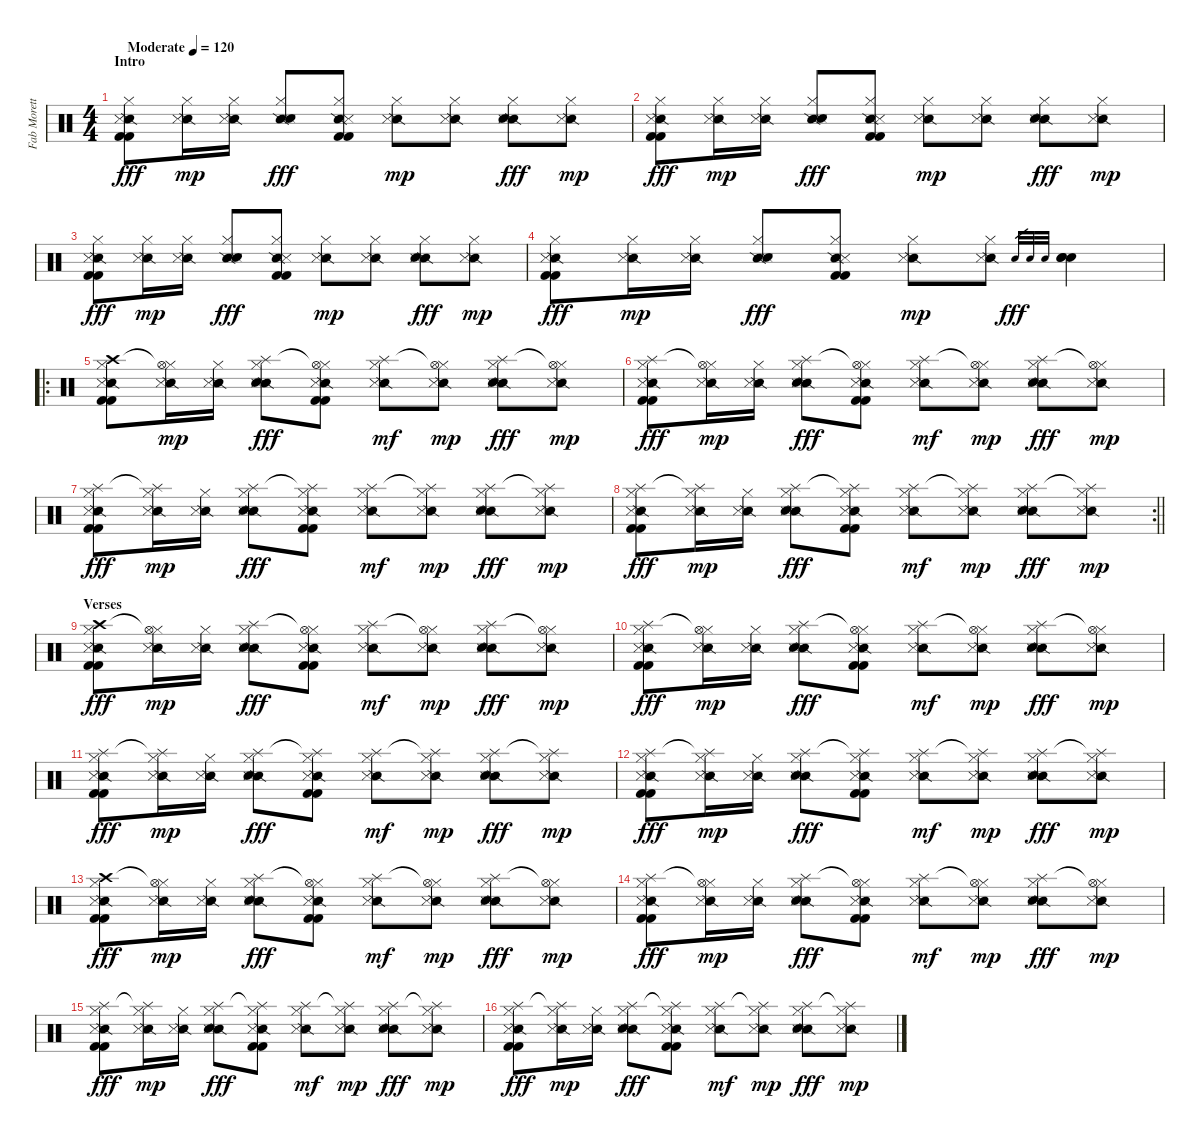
\track ("Fab Moretti - Drums" "Fab Morett") {instrument percussion}
\staff {score}
\articulation defaults
\ts (4 4)
\section ("" "Intro")
\tempo (120 "Moderate")
\clef neutral
\ks c
("Snare (side stick) 2" "Metronome (hit)" "Hi-Hat (closed)" "Kick (hit) 2" "Kick (hit) 2").8{dy fff} ("Snare (side stick) 2" "Metronome (hit)" "Hi-Hat (closed)").16{dy mp} ("Snare (side stick) 2" "Metronome (hit)" "Hi-Hat (closed)").16 ("Snare (side stick) 2" "Metronome (hit)" "Hi-Hat (closed)" "Electric Snare (hit)").8{dy fff} ("Snare (side stick) 2" "Metronome (hit)" "Hi-Hat (closed)" "Kick (hit) 2" "Kick (hit) 2").8 ("Snare (side stick) 2" "Metronome (hit)" "Hi-Hat (closed)").8{dy mp} ("Snare (side stick) 2" "Metronome (hit)" "Hi-Hat (closed)").8 ("Snare (side stick) 2" "Metronome (hit)" "Hi-Hat (closed)" "Electric Snare (hit)").8{dy fff} ("Snare (side stick) 2" "Metronome (hit)" "Hi-Hat (closed)").8{dy mp} |
("Snare (side stick) 2" "Metronome (hit)" "Hi-Hat (closed)" "Kick (hit) 2" "Kick (hit) 2").8{dy fff} ("Snare (side stick) 2" "Metronome (hit)" "Hi-Hat (closed)").16{dy mp} ("Snare (side stick) 2" "Metronome (hit)" "Hi-Hat (closed)").16 ("Snare (side stick) 2" "Metronome (hit)" "Hi-Hat (closed)" "Electric Snare (hit)").8{dy fff} ("Snare (side stick) 2" "Metronome (hit)" "Hi-Hat (closed)" "Kick (hit) 2" "Kick (hit) 2").8 ("Snare (side stick) 2" "Metronome (hit)" "Hi-Hat (closed)").8{dy mp} ("Snare (side stick) 2" "Metronome (hit)" "Hi-Hat (closed)").8 ("Snare (side stick) 2" "Metronome (hit)" "Hi-Hat (closed)" "Electric Snare (hit)").8{dy fff} ("Snare (side stick) 2" "Metronome (hit)" "Hi-Hat (closed)").8{dy mp} |
("Snare (side stick) 2" "Metronome (hit)" "Hi-Hat (closed)" "Kick (hit) 2" "Kick (hit) 2").8{dy fff} ("Snare (side stick) 2" "Metronome (hit)" "Hi-Hat (closed)").16{dy mp} ("Snare (side stick) 2" "Metronome (hit)" "Hi-Hat (closed)").16 ("Snare (side stick) 2" "Metronome (hit)" "Hi-Hat (closed)" "Electric Snare (hit)").8{dy fff} ("Snare (side stick) 2" "Metronome (hit)" "Hi-Hat (closed)" "Kick (hit) 2" "Kick (hit) 2").8 ("Snare (side stick) 2" "Metronome (hit)" "Hi-Hat (closed)").8{dy mp} ("Snare (side stick) 2" "Metronome (hit)" "Hi-Hat (closed)").8 ("Snare (side stick) 2" "Metronome (hit)" "Hi-Hat (closed)" "Electric Snare (hit)").8{dy fff} ("Snare (side stick) 2" "Metronome (hit)" "Hi-Hat (closed)").8{dy mp} |
("Snare (side stick) 2" "Metronome (hit)" "Hi-Hat (closed)" "Kick (hit) 2" "Kick (hit) 2").8{dy fff} ("Snare (side stick) 2" "Metronome (hit)" "Hi-Hat (closed)").16{dy mp} ("Snare (side stick) 2" "Metronome (hit)" "Hi-Hat (closed)").16 ("Snare (side stick) 2" "Metronome (hit)" "Hi-Hat (closed)" "Electric Snare (hit)").8{dy fff} ("Snare (side stick) 2" "Metronome (hit)" "Hi-Hat (closed)" "Kick (hit) 2" "Kick (hit) 2").8 ("Snare (side stick) 2" "Metronome (hit)" "Hi-Hat (closed)").8{dy mp} ("Snare (side stick) 2" "Metronome (hit)" "Hi-Hat (closed)").8 "Electric Snare (hit)".32{gr dy fff} "Electric Snare (hit)".32{gr} "Electric Snare (hit)".32{gr} ("Electric Snare (hit)" "Electric Snare (hit)" "Electric Snare (hit)").4 |
\ro
("Snare (side stick) 2" "Metronome (hit)" "Hi-Hat (closed)" "Crash high (hit)" "Kick (hit) 2" "Kick (hit) 2").8 ("Snare (side stick) 2" "Metronome (hit)" "Hi-Hat (closed)" "Hi-Hat (open)"{t}).16{dy mp} ("Snare (side stick) 2" "Metronome (hit)" "Hi-Hat (closed)").16 ("Snare (side stick) 2" "Metronome (hit)" "Hi-Hat (closed)" "Splash (hit)" "Electric Snare (hit)").8{dy fff} ("Snare (side stick) 2" "Metronome (hit)" "Hi-Hat (closed)" "Hi-Hat (open)"{t} "Kick (hit) 2" "Kick (hit) 2").8 ("Snare (side stick) 2" "Metronome (hit)" "Hi-Hat (closed)" "Splash (hit)").8{dy mf} ("Snare (side stick) 2" "Metronome (hit)" "Hi-Hat (closed)" "Hi-Hat (open)"{t}).8{dy mp} ("Snare (side stick) 2" "Metronome (hit)" "Hi-Hat (closed)" "Splash (hit)" "Electric Snare (hit)").8{dy fff} ("Snare (side stick) 2" "Metronome (hit)" "Hi-Hat (closed)" "Hi-Hat (open)"{t}).8{dy mp} |
("Snare (side stick) 2" "Metronome (hit)" "Hi-Hat (closed)" "Splash (hit)" "Kick (hit) 2" "Kick (hit) 2").8{dy fff} ("Snare (side stick) 2" "Metronome (hit)" "Hi-Hat (closed)" "Hi-Hat (open)"{t}).16{dy mp} ("Snare (side stick) 2" "Metronome (hit)" "Hi-Hat (closed)").16 ("Snare (side stick) 2" "Metronome (hit)" "Hi-Hat (closed)" "Splash (hit)" "Electric Snare (hit)").8{dy fff} ("Snare (side stick) 2" "Metronome (hit)" "Hi-Hat (closed)" "Hi-Hat (open)"{t} "Kick (hit) 2" "Kick (hit) 2").8 ("Snare (side stick) 2" "Metronome (hit)" "Hi-Hat (closed)" "Splash (hit)").8{dy mf} ("Snare (side stick) 2" "Metronome (hit)" "Hi-Hat (closed)" "Hi-Hat (open)"{t}).8{dy mp} ("Snare (side stick) 2" "Metronome (hit)" "Hi-Hat (closed)" "Splash (hit)" "Electric Snare (hit)").8{dy fff} ("Snare (side stick) 2" "Metronome (hit)" "Hi-Hat (closed)" "Hi-Hat (open)"{t}).8{dy mp} |
("Snare (side stick) 2" "Metronome (hit)" "Hi-Hat (closed)" "Splash (hit)" "Kick (hit) 2" "Kick (hit) 2").8{dy fff} ("Snare (side stick) 2" "Metronome (hit)" "Hi-Hat (closed)" "Splash (hit)"{t}).16{dy mp} ("Snare (side stick) 2" "Metronome (hit)" "Hi-Hat (closed)").16 ("Snare (side stick) 2" "Metronome (hit)" "Hi-Hat (closed)" "Splash (hit)" "Electric Snare (hit)").8{dy fff} ("Snare (side stick) 2" "Metronome (hit)" "Hi-Hat (closed)" "Splash (hit)"{t} "Kick (hit) 2" "Kick (hit) 2").8 ("Snare (side stick) 2" "Metronome (hit)" "Hi-Hat (closed)" "Splash (hit)").8{dy mf} ("Snare (side stick) 2" "Metronome (hit)" "Hi-Hat (closed)" "Splash (hit)"{t}).8{dy mp} ("Snare (side stick) 2" "Metronome (hit)" "Hi-Hat (closed)" "Splash (hit)" "Electric Snare (hit)").8{dy fff} ("Snare (side stick) 2" "Metronome (hit)" "Hi-Hat (closed)" "Splash (hit)"{t}).8{dy mp} |
\rc 2
\barLineRight lightlight
("Snare (side stick) 2" "Metronome (hit)" "Hi-Hat (closed)" "Splash (hit)" "Kick (hit) 2" "Kick (hit) 2").8{dy fff} ("Snare (side stick) 2" "Metronome (hit)" "Hi-Hat (closed)" "Splash (hit)"{t}).16{dy mp} ("Snare (side stick) 2" "Metronome (hit)" "Hi-Hat (closed)").16 ("Snare (side stick) 2" "Metronome (hit)" "Hi-Hat (closed)" "Splash (hit)" "Electric Snare (hit)").8{dy fff} ("Snare (side stick) 2" "Metronome (hit)" "Hi-Hat (closed)" "Splash (hit)"{t} "Kick (hit) 2" "Kick (hit) 2").8 ("Snare (side stick) 2" "Metronome (hit)" "Hi-Hat (closed)" "Splash (hit)").8{dy mf} ("Snare (side stick) 2" "Metronome (hit)" "Hi-Hat (closed)" "Splash (hit)"{t}).8{dy mp} ("Snare (side stick) 2" "Metronome (hit)" "Hi-Hat (closed)" "Splash (hit)" "Electric Snare (hit)").8{dy fff} ("Snare (side stick) 2" "Metronome (hit)" "Hi-Hat (closed)" "Splash (hit)"{t}).8{dy mp} |
\section ("" "Verses")
("Snare (side stick) 2" "Metronome (hit)" "Hi-Hat (closed)" "Crash high (hit)" "Kick (hit) 2" "Kick (hit) 2").8{dy fff} ("Snare (side stick) 2" "Metronome (hit)" "Hi-Hat (closed)" "Hi-Hat (open)"{t}).16{dy mp} ("Snare (side stick) 2" "Metronome (hit)" "Hi-Hat (closed)").16 ("Snare (side stick) 2" "Metronome (hit)" "Hi-Hat (closed)" "Splash (hit)" "Electric Snare (hit)").8{dy fff} ("Snare (side stick) 2" "Metronome (hit)" "Hi-Hat (closed)" "Hi-Hat (open)"{t} "Kick (hit) 2" "Kick (hit) 2").8 ("Snare (side stick) 2" "Metronome (hit)" "Hi-Hat (closed)" "Splash (hit)").8{dy mf} ("Snare (side stick) 2" "Metronome (hit)" "Hi-Hat (closed)" "Hi-Hat (open)"{t}).8{dy mp} ("Snare (side stick) 2" "Metronome (hit)" "Hi-Hat (closed)" "Splash (hit)" "Electric Snare (hit)").8{dy fff} ("Snare (side stick) 2" "Metronome (hit)" "Hi-Hat (closed)" "Hi-Hat (open)"{t}).8{dy mp} |
("Snare (side stick) 2" "Metronome (hit)" "Hi-Hat (closed)" "Splash (hit)" "Kick (hit) 2" "Kick (hit) 2").8{dy fff} ("Snare (side stick) 2" "Metronome (hit)" "Hi-Hat (closed)" "Hi-Hat (open)"{t}).16{dy mp} ("Snare (side stick) 2" "Metronome (hit)" "Hi-Hat (closed)").16 ("Snare (side stick) 2" "Metronome (hit)" "Hi-Hat (closed)" "Splash (hit)" "Electric Snare (hit)").8{dy fff} ("Snare (side stick) 2" "Metronome (hit)" "Hi-Hat (closed)" "Hi-Hat (open)"{t} "Kick (hit) 2" "Kick (hit) 2").8 ("Snare (side stick) 2" "Metronome (hit)" "Hi-Hat (closed)" "Splash (hit)").8{dy mf} ("Snare (side stick) 2" "Metronome (hit)" "Hi-Hat (closed)" "Hi-Hat (open)"{t}).8{dy mp} ("Snare (side stick) 2" "Metronome (hit)" "Hi-Hat (closed)" "Splash (hit)" "Electric Snare (hit)").8{dy fff} ("Snare (side stick) 2" "Metronome (hit)" "Hi-Hat (closed)" "Hi-Hat (open)"{t}).8{dy mp} |
("Snare (side stick) 2" "Metronome (hit)" "Hi-Hat (closed)" "Splash (hit)" "Kick (hit) 2" "Kick (hit) 2").8{dy fff} ("Snare (side stick) 2" "Metronome (hit)" "Hi-Hat (closed)" "Splash (hit)"{t}).16{dy mp} ("Snare (side stick) 2" "Metronome (hit)" "Hi-Hat (closed)").16 ("Snare (side stick) 2" "Metronome (hit)" "Hi-Hat (closed)" "Splash (hit)" "Electric Snare (hit)").8{dy fff} ("Snare (side stick) 2" "Metronome (hit)" "Hi-Hat (closed)" "Splash (hit)"{t} "Kick (hit) 2" "Kick (hit) 2").8 ("Snare (side stick) 2" "Metronome (hit)" "Hi-Hat (closed)" "Splash (hit)").8{dy mf} ("Snare (side stick) 2" "Metronome (hit)" "Hi-Hat (closed)" "Splash (hit)"{t}).8{dy mp} ("Snare (side stick) 2" "Metronome (hit)" "Hi-Hat (closed)" "Splash (hit)" "Electric Snare (hit)").8{dy fff} ("Snare (side stick) 2" "Metronome (hit)" "Hi-Hat (closed)" "Splash (hit)"{t}).8{dy mp} |
("Snare (side stick) 2" "Metronome (hit)" "Hi-Hat (closed)" "Splash (hit)" "Kick (hit) 2" "Kick (hit) 2").8{dy fff} ("Snare (side stick) 2" "Metronome (hit)" "Hi-Hat (closed)" "Splash (hit)"{t}).16{dy mp} ("Snare (side stick) 2" "Metronome (hit)" "Hi-Hat (closed)").16 ("Snare (side stick) 2" "Metronome (hit)" "Hi-Hat (closed)" "Splash (hit)" "Electric Snare (hit)").8{dy fff} ("Snare (side stick) 2" "Metronome (hit)" "Hi-Hat (closed)" "Splash (hit)"{t} "Kick (hit) 2" "Kick (hit) 2").8 ("Snare (side stick) 2" "Metronome (hit)" "Hi-Hat (closed)" "Splash (hit)").8{dy mf} ("Snare (side stick) 2" "Metronome (hit)" "Hi-Hat (closed)" "Splash (hit)"{t}).8{dy mp} ("Snare (side stick) 2" "Metronome (hit)" "Hi-Hat (closed)" "Splash (hit)" "Electric Snare (hit)").8{dy fff} ("Snare (side stick) 2" "Metronome (hit)" "Hi-Hat (closed)" "Splash (hit)"{t}).8{dy mp} |
("Snare (side stick) 2" "Metronome (hit)" "Hi-Hat (closed)" "Crash high (hit)" "Kick (hit) 2" "Kick (hit) 2").8{dy fff} ("Snare (side stick) 2" "Metronome (hit)" "Hi-Hat (closed)" "Hi-Hat (open)"{t}).16{dy mp} ("Snare (side stick) 2" "Metronome (hit)" "Hi-Hat (closed)").16 ("Snare (side stick) 2" "Metronome (hit)" "Hi-Hat (closed)" "Splash (hit)" "Electric Snare (hit)").8{dy fff} ("Snare (side stick) 2" "Metronome (hit)" "Hi-Hat (closed)" "Hi-Hat (open)"{t} "Kick (hit) 2" "Kick (hit) 2").8 ("Snare (side stick) 2" "Metronome (hit)" "Hi-Hat (closed)" "Splash (hit)").8{dy mf} ("Snare (side stick) 2" "Metronome (hit)" "Hi-Hat (closed)" "Hi-Hat (open)"{t}).8{dy mp} ("Snare (side stick) 2" "Metronome (hit)" "Hi-Hat (closed)" "Splash (hit)" "Electric Snare (hit)").8{dy fff} ("Snare (side stick) 2" "Metronome (hit)" "Hi-Hat (closed)" "Hi-Hat (open)"{t}).8{dy mp} |
("Snare (side stick) 2" "Metronome (hit)" "Hi-Hat (closed)" "Splash (hit)" "Kick (hit) 2" "Kick (hit) 2").8{dy fff} ("Snare (side stick) 2" "Metronome (hit)" "Hi-Hat (closed)" "Hi-Hat (open)"{t}).16{dy mp} ("Snare (side stick) 2" "Metronome (hit)" "Hi-Hat (closed)").16 ("Snare (side stick) 2" "Metronome (hit)" "Hi-Hat (closed)" "Splash (hit)" "Electric Snare (hit)").8{dy fff} ("Snare (side stick) 2" "Metronome (hit)" "Hi-Hat (closed)" "Hi-Hat (open)"{t} "Kick (hit) 2" "Kick (hit) 2").8 ("Snare (side stick) 2" "Metronome (hit)" "Hi-Hat (closed)" "Splash (hit)").8{dy mf} ("Snare (side stick) 2" "Metronome (hit)" "Hi-Hat (closed)" "Hi-Hat (open)"{t}).8{dy mp} ("Snare (side stick) 2" "Metronome (hit)" "Hi-Hat (closed)" "Splash (hit)" "Electric Snare (hit)").8{dy fff} ("Snare (side stick) 2" "Metronome (hit)" "Hi-Hat (closed)" "Hi-Hat (open)"{t}).8{dy mp} |
("Snare (side stick) 2" "Metronome (hit)" "Hi-Hat (closed)" "Splash (hit)" "Kick (hit) 2" "Kick (hit) 2").8{dy fff} ("Snare (side stick) 2" "Metronome (hit)" "Hi-Hat (closed)" "Splash (hit)"{t}).16{dy mp} ("Snare (side stick) 2" "Metronome (hit)" "Hi-Hat (closed)").16 ("Snare (side stick) 2" "Metronome (hit)" "Hi-Hat (closed)" "Splash (hit)" "Electric Snare (hit)").8{dy fff} ("Snare (side stick) 2" "Metronome (hit)" "Hi-Hat (closed)" "Splash (hit)"{t} "Kick (hit) 2" "Kick (hit) 2").8 ("Snare (side stick) 2" "Metronome (hit)" "Hi-Hat (closed)" "Splash (hit)").8{dy mf} ("Snare (side stick) 2" "Metronome (hit)" "Hi-Hat (closed)" "Splash (hit)"{t}).8{dy mp} ("Snare (side stick) 2" "Metronome (hit)" "Hi-Hat (closed)" "Splash (hit)" "Electric Snare (hit)").8{dy fff} ("Snare (side stick) 2" "Metronome (hit)" "Hi-Hat (closed)" "Splash (hit)"{t}).8{dy mp} |
("Snare (side stick) 2" "Metronome (hit)" "Hi-Hat (closed)" "Splash (hit)" "Kick (hit) 2" "Kick (hit) 2").8{dy fff} ("Snare (side stick) 2" "Metronome (hit)" "Hi-Hat (closed)" "Splash (hit)"{t}).16{dy mp} ("Snare (side stick) 2" "Metronome (hit)" "Hi-Hat (closed)").16 ("Snare (side stick) 2" "Metronome (hit)" "Hi-Hat (closed)" "Splash (hit)" "Electric Snare (hit)").8{dy fff} ("Snare (side stick) 2" "Metronome (hit)" "Hi-Hat (closed)" "Splash (hit)"{t} "Kick (hit) 2" "Kick (hit) 2").8 ("Snare (side stick) 2" "Metronome (hit)" "Hi-Hat (closed)" "Splash (hit)").8{dy mf} ("Snare (side stick) 2" "Metronome (hit)" "Hi-Hat (closed)" "Splash (hit)"{t}).8{dy mp} ("Snare (side stick) 2" "Metronome (hit)" "Hi-Hat (closed)" "Splash (hit)" "Electric Snare (hit)").8{dy fff} ("Snare (side stick) 2" "Metronome (hit)" "Hi-Hat (closed)" "Splash (hit)"{t}).8{dy mp}
